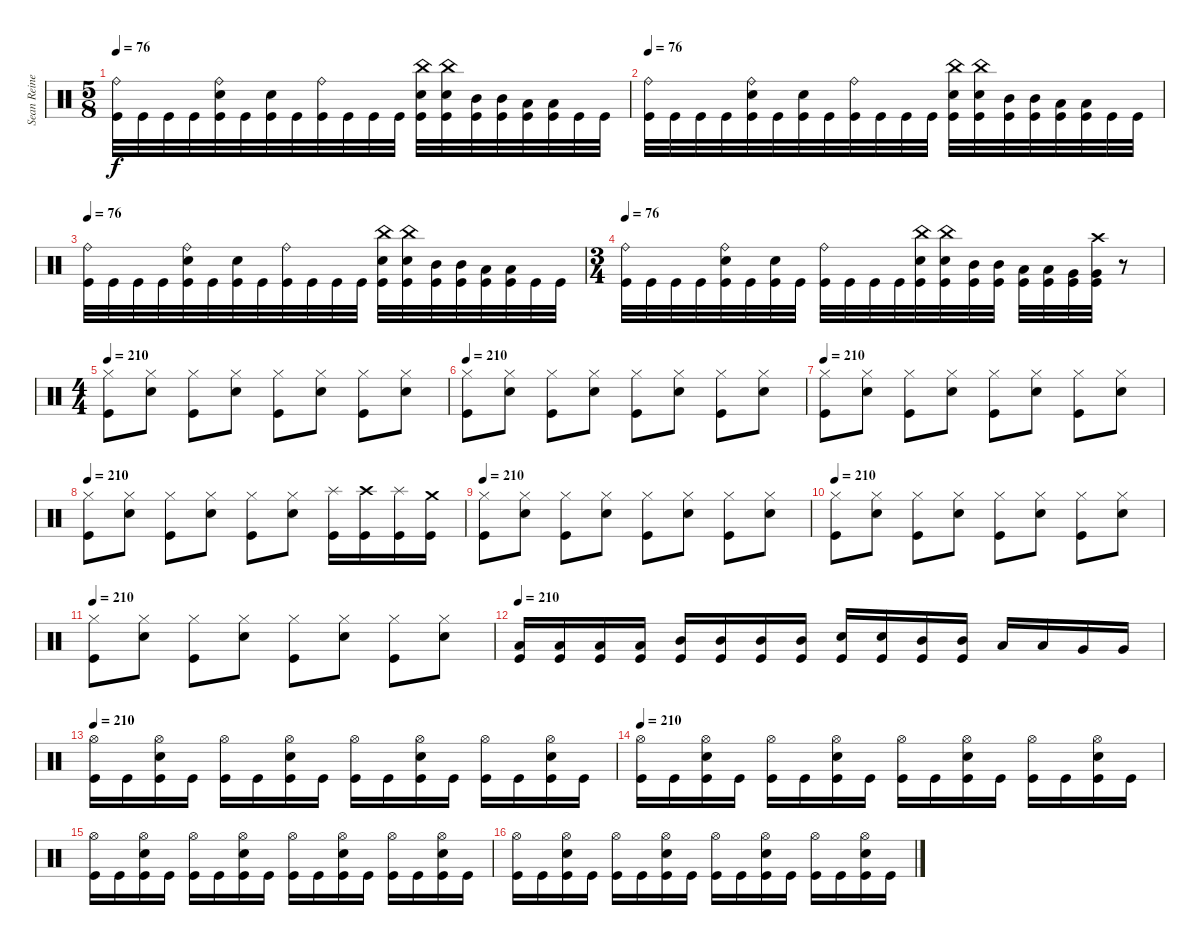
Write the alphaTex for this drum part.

\track ("Sean Reinert" "Sean Reine") {instrument percussion}
\staff {score}
\articulation defaults
\ts (5 8)
\tempo 76
\clef neutral
\ks c
("Ride (bell)" "Kick (hit)").32{dy f} "Kick (hit)".32 "Kick (hit)".32 "Kick (hit)".32 ("Ride (bell)" "Snare (hit) 2" "Kick (hit)").32 "Kick (hit)".32 ("Snare (hit) 2" "Kick (hit)").32 "Kick (hit)".32 ("Ride (bell)" "Kick (hit)").32 "Kick (hit)".32 "Kick (hit)".32 "Kick (hit)".32 ("China (hit)" "Snare (hit) 2" "Kick (hit)").32 ("China (hit)" "Snare (hit) 2" "Kick (hit)").32 ("Mid Tom (hit)" "Kick (hit)").32 ("Mid Tom (hit)" "Kick (hit)").32 ("Low Tom (hit)" "Kick (hit)").32 ("Low Tom (hit)" "Kick (hit)").32 "Kick (hit)".32 "Kick (hit)".32 |
\tempo 76
("Ride (bell)" "Kick (hit)").32 "Kick (hit)".32 "Kick (hit)".32 "Kick (hit)".32 ("Ride (bell)" "Snare (hit) 2" "Kick (hit)").32 "Kick (hit)".32 ("Snare (hit) 2" "Kick (hit)").32 "Kick (hit)".32 ("Ride (bell)" "Kick (hit)").32 "Kick (hit)".32 "Kick (hit)".32 "Kick (hit)".32 ("China (hit)" "Snare (hit) 2" "Kick (hit)").32 ("China (hit)" "Snare (hit) 2" "Kick (hit)").32 ("Mid Tom (hit)" "Kick (hit)").32 ("Mid Tom (hit)" "Kick (hit)").32 ("Low Tom (hit)" "Kick (hit)").32 ("Low Tom (hit)" "Kick (hit)").32 "Kick (hit)".32 "Kick (hit)".32 |
\tempo 76
("Ride (bell)" "Kick (hit)").32 "Kick (hit)".32 "Kick (hit)".32 "Kick (hit)".32 ("Ride (bell)" "Snare (hit) 2" "Kick (hit)").32 "Kick (hit)".32 ("Snare (hit) 2" "Kick (hit)").32 "Kick (hit)".32 ("Ride (bell)" "Kick (hit)").32 "Kick (hit)".32 "Kick (hit)".32 "Kick (hit)".32 ("China (hit)" "Snare (hit) 2" "Kick (hit)").32 ("China (hit)" "Snare (hit) 2" "Kick (hit)").32 ("Mid Tom (hit)" "Kick (hit)").32 ("Mid Tom (hit)" "Kick (hit)").32 ("Low Tom (hit)" "Kick (hit)").32 ("Low Tom (hit)" "Kick (hit)").32 "Kick (hit)".32 "Kick (hit)".32 |
\ts (3 4)
\tempo 76
("Ride (bell)" "Kick (hit)").32 "Kick (hit)".32 "Kick (hit)".32 "Kick (hit)".32 ("Ride (bell)" "Snare (hit) 2" "Kick (hit)").32 "Kick (hit)".32 ("Snare (hit) 2" "Kick (hit)").32 "Kick (hit)".32 ("Ride (bell)" "Kick (hit)").32 "Kick (hit)".32 "Kick (hit)".32 "Kick (hit)".32 ("China (hit)" "Snare (hit) 2" "Kick (hit)").32 ("China (hit)" "Snare (hit) 2" "Kick (hit)").32 ("Mid Tom (hit)" "Kick (hit)").32 ("Mid Tom (hit)" "Kick (hit)").32 ("Low Tom (hit)" "Kick (hit)").32 ("Low Tom (hit)" "Kick (hit)").32 ("Very Low Tom (hit)" "Kick (hit)").32 ("Crash high (hit)" "Very Low Tom (hit)" "Kick (hit)").32 r.8 |
\ts (4 4)
\tempo 210
("Hi-Hat (closed)" "Kick (hit)").8 ("Hi-Hat (closed)" "Snare (hit) 2").8 ("Hi-Hat (closed)" "Kick (hit)").8 ("Hi-Hat (closed)" "Snare (hit) 2").8 ("Hi-Hat (closed)" "Kick (hit)").8 ("Hi-Hat (closed)" "Snare (hit) 2").8 ("Hi-Hat (closed)" "Kick (hit)").8 ("Hi-Hat (closed)" "Snare (hit) 2").8 |
\tempo 210
("Hi-Hat (closed)" "Kick (hit)").8 ("Hi-Hat (closed)" "Snare (hit) 2").8 ("Hi-Hat (closed)" "Kick (hit)").8 ("Hi-Hat (closed)" "Snare (hit) 2").8 ("Hi-Hat (closed)" "Kick (hit)").8 ("Hi-Hat (closed)" "Snare (hit) 2").8 ("Hi-Hat (closed)" "Kick (hit)").8 ("Hi-Hat (closed)" "Snare (hit) 2").8 |
\tempo 210
("Hi-Hat (closed)" "Kick (hit)").8 ("Hi-Hat (closed)" "Snare (hit) 2").8 ("Hi-Hat (closed)" "Kick (hit)").8 ("Hi-Hat (closed)" "Snare (hit) 2").8 ("Hi-Hat (closed)" "Kick (hit)").8 ("Hi-Hat (closed)" "Snare (hit) 2").8 ("Hi-Hat (closed)" "Kick (hit)").8 ("Hi-Hat (closed)" "Snare (hit) 2").8 |
\tempo 210
("Hi-Hat (closed)" "Kick (hit)").8 ("Hi-Hat (closed)" "Snare (hit) 2").8 ("Hi-Hat (closed)" "Kick (hit)").8 ("Hi-Hat (closed)" "Snare (hit) 2").8 ("Hi-Hat (closed)" "Kick (hit)").8 ("Hi-Hat (closed)" "Snare (hit) 2").8 ("Splash (hit)" "Kick (hit)").16 ("Crash high (hit)" "Kick (hit)").16 ("Splash (hit)" "Kick (hit)").16 ("Crash medium (hit)" "Kick (hit)").16 |
\tempo 210
("Hi-Hat (closed)" "Kick (hit)").8 ("Hi-Hat (closed)" "Snare (hit) 2").8 ("Hi-Hat (closed)" "Kick (hit)").8 ("Hi-Hat (closed)" "Snare (hit) 2").8 ("Hi-Hat (closed)" "Kick (hit)").8 ("Hi-Hat (closed)" "Snare (hit) 2").8 ("Hi-Hat (closed)" "Kick (hit)").8 ("Hi-Hat (closed)" "Snare (hit) 2").8 |
\tempo 210
("Hi-Hat (closed)" "Kick (hit)").8 ("Hi-Hat (closed)" "Snare (hit) 2").8 ("Hi-Hat (closed)" "Kick (hit)").8 ("Hi-Hat (closed)" "Snare (hit) 2").8 ("Hi-Hat (closed)" "Kick (hit)").8 ("Hi-Hat (closed)" "Snare (hit) 2").8 ("Hi-Hat (closed)" "Kick (hit)").8 ("Hi-Hat (closed)" "Snare (hit) 2").8 |
\tempo 210
("Hi-Hat (closed)" "Kick (hit)").8 ("Hi-Hat (closed)" "Snare (hit) 2").8 ("Hi-Hat (closed)" "Kick (hit)").8 ("Hi-Hat (closed)" "Snare (hit) 2").8 ("Hi-Hat (closed)" "Kick (hit)").8 ("Hi-Hat (closed)" "Snare (hit) 2").8 ("Hi-Hat (closed)" "Kick (hit)").8 ("Hi-Hat (closed)" "Snare (hit) 2").8 |
\tempo 210
("Low Tom (hit)" "Kick (hit)").16 ("Low Tom (hit)" "Kick (hit)").16 ("Low Tom (hit)" "Kick (hit)").16 ("Low Tom (hit)" "Kick (hit)").16 ("Mid Tom (hit)" "Kick (hit)").16 ("Mid Tom (hit)" "Kick (hit)").16 ("Mid Tom (hit)" "Kick (hit)").16 ("Mid Tom (hit)" "Kick (hit)").16 ("Snare (hit) 2" "Kick (hit)").16 ("Snare (hit) 2" "Kick (hit)").16 ("Mid Tom (hit)" "Kick (hit)").16 ("Mid Tom (hit)" "Kick (hit)").16 "Low Tom (hit)".16 "Low Tom (hit)".16 "Very Low Tom (hit)".16 "Very Low Tom (hit)".16 |
\tempo 210
("Hi-Hat (open)" "Kick (hit)").16 "Kick (hit)".16 ("Hi-Hat (open)" "Snare (hit) 2" "Kick (hit)").16 "Kick (hit)".16 ("Hi-Hat (open)" "Kick (hit)").16 "Kick (hit)".16 ("Hi-Hat (open)" "Snare (hit) 2" "Kick (hit)").16 "Kick (hit)".16 ("Hi-Hat (open)" "Kick (hit)").16 "Kick (hit)".16 ("Hi-Hat (open)" "Snare (hit) 2" "Kick (hit)").16 "Kick (hit)".16 ("Hi-Hat (open)" "Kick (hit)").16 "Kick (hit)".16 ("Hi-Hat (open)" "Snare (hit) 2" "Kick (hit)").16 "Kick (hit)".16 |
\tempo 210
("Hi-Hat (open)" "Kick (hit)").16 "Kick (hit)".16 ("Hi-Hat (open)" "Snare (hit) 2" "Kick (hit)").16 "Kick (hit)".16 ("Hi-Hat (open)" "Kick (hit)").16 "Kick (hit)".16 ("Hi-Hat (open)" "Snare (hit) 2" "Kick (hit)").16 "Kick (hit)".16 ("Hi-Hat (open)" "Kick (hit)").16 "Kick (hit)".16 ("Hi-Hat (open)" "Snare (hit) 2" "Kick (hit)").16 "Kick (hit)".16 ("Hi-Hat (open)" "Kick (hit)").16 "Kick (hit)".16 ("Hi-Hat (open)" "Snare (hit) 2" "Kick (hit)").16 "Kick (hit)".16 |
("Hi-Hat (open)" "Kick (hit)").16 "Kick (hit)".16 ("Hi-Hat (open)" "Snare (hit) 2" "Kick (hit)").16 "Kick (hit)".16 ("Hi-Hat (open)" "Kick (hit)").16 "Kick (hit)".16 ("Hi-Hat (open)" "Snare (hit) 2" "Kick (hit)").16 "Kick (hit)".16 ("Hi-Hat (open)" "Kick (hit)").16 "Kick (hit)".16 ("Hi-Hat (open)" "Snare (hit) 2" "Kick (hit)").16 "Kick (hit)".16 ("Hi-Hat (open)" "Kick (hit)").16 "Kick (hit)".16 ("Hi-Hat (open)" "Snare (hit) 2" "Kick (hit)").16 "Kick (hit)".16 |
("Hi-Hat (open)" "Kick (hit)").16 "Kick (hit)".16 ("Hi-Hat (open)" "Snare (hit) 2" "Kick (hit)").16 "Kick (hit)".16 ("Hi-Hat (open)" "Kick (hit)").16 "Kick (hit)".16 ("Hi-Hat (open)" "Snare (hit) 2" "Kick (hit)").16 "Kick (hit)".16 ("Hi-Hat (open)" "Kick (hit)").16 "Kick (hit)".16 ("Hi-Hat (open)" "Snare (hit) 2" "Kick (hit)").16 "Kick (hit)".16 ("Hi-Hat (open)" "Kick (hit)").16 "Kick (hit)".16 ("Hi-Hat (open)" "Snare (hit) 2" "Kick (hit)").16 "Kick (hit)".16
